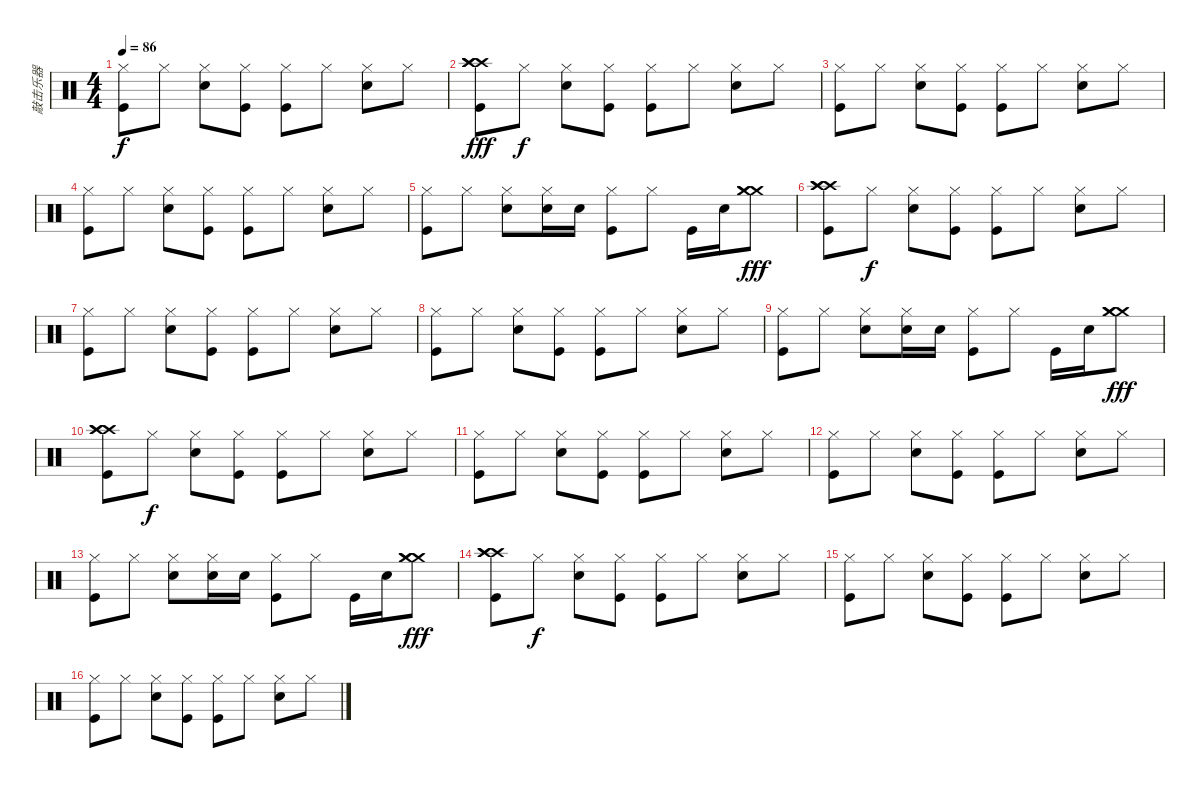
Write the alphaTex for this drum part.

\track ("敲击乐器" "敲击乐器") {instrument percussion}
\staff {score}
\articulation defaults
\ts (4 4)
\tempo 86
\clef neutral
\ks c
("Hi-Hat (closed)" "Kick (hit)").8{dy f} "Hi-Hat (closed)".8 ("Hi-Hat (closed)" "Electric Snare (hit)").8 ("Hi-Hat (closed)" "Kick (hit)").8 ("Hi-Hat (closed)" "Kick (hit)").8 "Hi-Hat (closed)".8 ("Hi-Hat (closed)" "Electric Snare (hit)").8 "Hi-Hat (closed)".8 |
("Crash high (hit)" "Crash high (hit)" "Crash high (hit)" "Kick (hit)").8{dy fff} "Hi-Hat (closed)".8{dy f} ("Hi-Hat (closed)" "Electric Snare (hit)").8 ("Hi-Hat (closed)" "Kick (hit)").8 ("Hi-Hat (closed)" "Kick (hit)").8 "Hi-Hat (closed)".8 ("Hi-Hat (closed)" "Electric Snare (hit)").8 "Hi-Hat (closed)".8 |
("Hi-Hat (closed)" "Kick (hit)").8 "Hi-Hat (closed)".8 ("Hi-Hat (closed)" "Electric Snare (hit)").8 ("Hi-Hat (closed)" "Kick (hit)").8 ("Hi-Hat (closed)" "Kick (hit)").8 "Hi-Hat (closed)".8 ("Hi-Hat (closed)" "Electric Snare (hit)").8 "Hi-Hat (closed)".8 |
("Hi-Hat (closed)" "Kick (hit)").8 "Hi-Hat (closed)".8 ("Hi-Hat (closed)" "Electric Snare (hit)").8 ("Hi-Hat (closed)" "Kick (hit)").8 ("Hi-Hat (closed)" "Kick (hit)").8 "Hi-Hat (closed)".8 ("Hi-Hat (closed)" "Electric Snare (hit)").8 "Hi-Hat (closed)".8 |
("Hi-Hat (closed)" "Kick (hit)").8 "Hi-Hat (closed)".8 ("Hi-Hat (closed)" "Electric Snare (hit)").8 ("Hi-Hat (closed)" "Electric Snare (hit)").16 "Electric Snare (hit)".16 ("Hi-Hat (closed)" "Kick (hit)").8 "Hi-Hat (closed)".8 "Kick (hit)".16 "Electric Snare (hit)".16 ("Crash medium (hit)" "Crash medium (hit)" "Crash medium (hit)").8{dy fff} |
("Crash high (hit)" "Crash high (hit)" "Crash high (hit)" "Kick (hit)").8 "Hi-Hat (closed)".8{dy f} ("Hi-Hat (closed)" "Electric Snare (hit)").8 ("Hi-Hat (closed)" "Kick (hit)").8 ("Hi-Hat (closed)" "Kick (hit)").8 "Hi-Hat (closed)".8 ("Hi-Hat (closed)" "Electric Snare (hit)").8 "Hi-Hat (closed)".8 |
("Hi-Hat (closed)" "Kick (hit)").8 "Hi-Hat (closed)".8 ("Hi-Hat (closed)" "Electric Snare (hit)").8 ("Hi-Hat (closed)" "Kick (hit)").8 ("Hi-Hat (closed)" "Kick (hit)").8 "Hi-Hat (closed)".8 ("Hi-Hat (closed)" "Electric Snare (hit)").8 "Hi-Hat (closed)".8 |
("Hi-Hat (closed)" "Kick (hit)").8 "Hi-Hat (closed)".8 ("Hi-Hat (closed)" "Electric Snare (hit)").8 ("Hi-Hat (closed)" "Kick (hit)").8 ("Hi-Hat (closed)" "Kick (hit)").8 "Hi-Hat (closed)".8 ("Hi-Hat (closed)" "Electric Snare (hit)").8 "Hi-Hat (closed)".8 |
("Hi-Hat (closed)" "Kick (hit)").8 "Hi-Hat (closed)".8 ("Hi-Hat (closed)" "Electric Snare (hit)").8 ("Hi-Hat (closed)" "Electric Snare (hit)").16 "Electric Snare (hit)".16 ("Hi-Hat (closed)" "Kick (hit)").8 "Hi-Hat (closed)".8 "Kick (hit)".16 "Electric Snare (hit)".16 ("Crash medium (hit)" "Crash medium (hit)" "Crash medium (hit)").8{dy fff} |
("Crash high (hit)" "Crash high (hit)" "Crash high (hit)" "Kick (hit)").8 "Hi-Hat (closed)".8{dy f} ("Hi-Hat (closed)" "Electric Snare (hit)").8 ("Hi-Hat (closed)" "Kick (hit)").8 ("Hi-Hat (closed)" "Kick (hit)").8 "Hi-Hat (closed)".8 ("Hi-Hat (closed)" "Electric Snare (hit)").8 "Hi-Hat (closed)".8 |
("Hi-Hat (closed)" "Kick (hit)").8 "Hi-Hat (closed)".8 ("Hi-Hat (closed)" "Electric Snare (hit)").8 ("Hi-Hat (closed)" "Kick (hit)").8 ("Hi-Hat (closed)" "Kick (hit)").8 "Hi-Hat (closed)".8 ("Hi-Hat (closed)" "Electric Snare (hit)").8 "Hi-Hat (closed)".8 |
("Hi-Hat (closed)" "Kick (hit)").8 "Hi-Hat (closed)".8 ("Hi-Hat (closed)" "Electric Snare (hit)").8 ("Hi-Hat (closed)" "Kick (hit)").8 ("Hi-Hat (closed)" "Kick (hit)").8 "Hi-Hat (closed)".8 ("Hi-Hat (closed)" "Electric Snare (hit)").8 "Hi-Hat (closed)".8 |
("Hi-Hat (closed)" "Kick (hit)").8 "Hi-Hat (closed)".8 ("Hi-Hat (closed)" "Electric Snare (hit)").8 ("Hi-Hat (closed)" "Electric Snare (hit)").16 "Electric Snare (hit)".16 ("Hi-Hat (closed)" "Kick (hit)").8 "Hi-Hat (closed)".8 "Kick (hit)".16 "Electric Snare (hit)".16 ("Crash medium (hit)" "Crash medium (hit)" "Crash medium (hit)").8{dy fff} |
("Crash high (hit)" "Crash high (hit)" "Crash high (hit)" "Kick (hit)").8 "Hi-Hat (closed)".8{dy f} ("Hi-Hat (closed)" "Electric Snare (hit)").8 ("Hi-Hat (closed)" "Kick (hit)").8 ("Hi-Hat (closed)" "Kick (hit)").8 "Hi-Hat (closed)".8 ("Hi-Hat (closed)" "Electric Snare (hit)").8 "Hi-Hat (closed)".8 |
("Hi-Hat (closed)" "Kick (hit)").8 "Hi-Hat (closed)".8 ("Hi-Hat (closed)" "Electric Snare (hit)").8 ("Hi-Hat (closed)" "Kick (hit)").8 ("Hi-Hat (closed)" "Kick (hit)").8 "Hi-Hat (closed)".8 ("Hi-Hat (closed)" "Electric Snare (hit)").8 "Hi-Hat (closed)".8 |
("Hi-Hat (closed)" "Kick (hit)").8 "Hi-Hat (closed)".8 ("Hi-Hat (closed)" "Electric Snare (hit)").8 ("Hi-Hat (closed)" "Kick (hit)").8 ("Hi-Hat (closed)" "Kick (hit)").8 "Hi-Hat (closed)".8 ("Hi-Hat (closed)" "Electric Snare (hit)").8 "Hi-Hat (closed)".8
